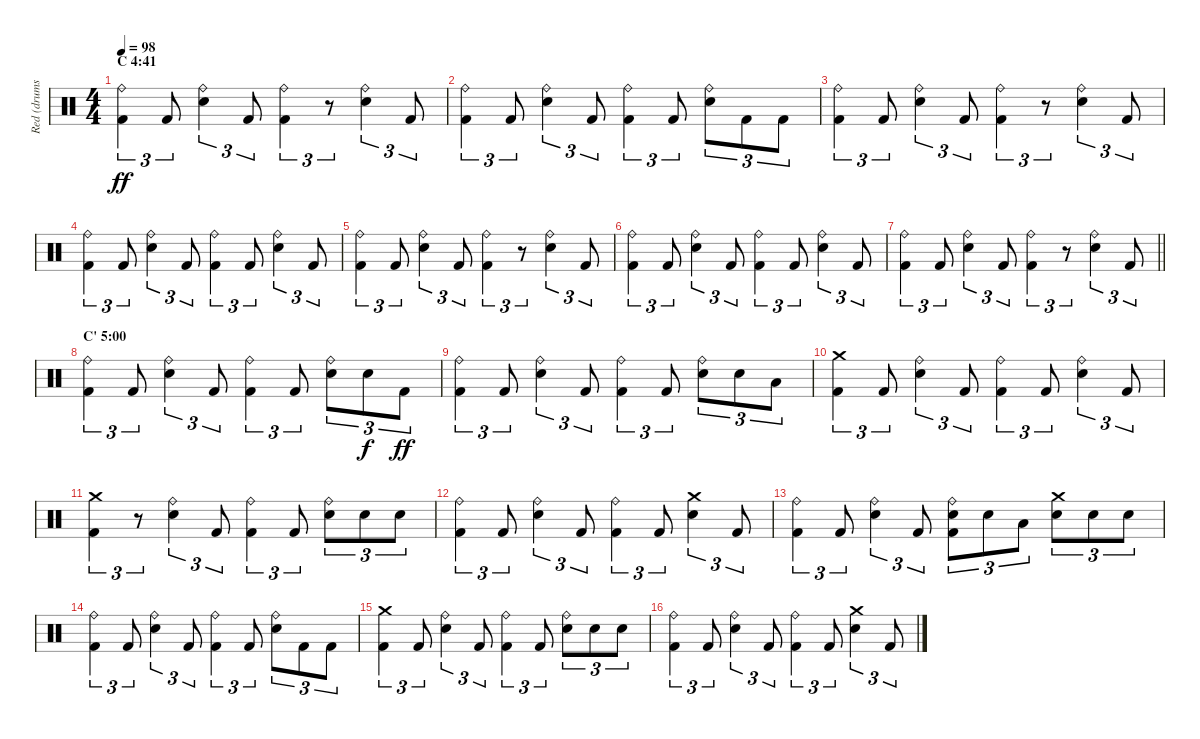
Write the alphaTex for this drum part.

\track ("Red (drums)" "Red (drums") {instrument percussion}
\staff {score}
\articulation defaults
\ts (4 4)
\section ("" "C 4:41")
\tempo 98
\clef neutral
\ks c
("Ride (bell)" "Kick (hit) 2").4{tu (3 2) dy ff} "Kick (hit) 2".8{tu (3 2)} ("Ride (bell)" "Electric Snare (hit)").4{tu (3 2)} "Kick (hit) 2".8{tu (3 2)} ("Ride (bell)" "Kick (hit) 2").4{tu (3 2)} r.8{tu (3 2)} ("Ride (bell)" "Electric Snare (hit)").4{tu (3 2)} "Kick (hit) 2".8{tu (3 2)} |
("Ride (bell)" "Kick (hit) 2").4{tu (3 2)} "Kick (hit) 2".8{tu (3 2)} ("Ride (bell)" "Electric Snare (hit)").4{tu (3 2)} "Kick (hit) 2".8{tu (3 2)} ("Ride (bell)" "Kick (hit) 2").4{tu (3 2)} "Kick (hit) 2".8{tu (3 2)} ("Ride (bell)" "Electric Snare (hit)").8{tu (3 2)} "Kick (hit) 2".8{tu (3 2)} "Kick (hit) 2".8{tu (3 2)} |
("Ride (bell)" "Kick (hit) 2").4{tu (3 2)} "Kick (hit) 2".8{tu (3 2)} ("Ride (bell)" "Electric Snare (hit)").4{tu (3 2)} "Kick (hit) 2".8{tu (3 2)} ("Ride (bell)" "Kick (hit) 2").4{tu (3 2)} r.8{tu (3 2)} ("Ride (bell)" "Electric Snare (hit)").4{tu (3 2)} "Kick (hit) 2".8{tu (3 2)} |
("Ride (bell)" "Kick (hit) 2").4{tu (3 2)} "Kick (hit) 2".8{tu (3 2)} ("Ride (bell)" "Electric Snare (hit)").4{tu (3 2)} "Kick (hit) 2".8{tu (3 2)} ("Ride (bell)" "Kick (hit) 2").4{tu (3 2)} "Kick (hit) 2".8{tu (3 2)} ("Ride (bell)" "Electric Snare (hit)").4{tu (3 2)} "Kick (hit) 2".8{tu (3 2)} |
("Ride (bell)" "Kick (hit) 2").4{tu (3 2)} "Kick (hit) 2".8{tu (3 2)} ("Ride (bell)" "Electric Snare (hit)").4{tu (3 2)} "Kick (hit) 2".8{tu (3 2)} ("Ride (bell)" "Kick (hit) 2").4{tu (3 2)} r.8{tu (3 2)} ("Ride (bell)" "Electric Snare (hit)").4{tu (3 2)} "Kick (hit) 2".8{tu (3 2)} |
("Ride (bell)" "Kick (hit) 2").4{tu (3 2)} "Kick (hit) 2".8{tu (3 2)} ("Ride (bell)" "Electric Snare (hit)").4{tu (3 2)} "Kick (hit) 2".8{tu (3 2)} ("Ride (bell)" "Kick (hit) 2").4{tu (3 2)} "Kick (hit) 2".8{tu (3 2)} ("Ride (bell)" "Electric Snare (hit)").4{tu (3 2)} "Kick (hit) 2".8{tu (3 2)} |
\barLineRight lightlight
("Ride (bell)" "Kick (hit) 2").4{tu (3 2)} "Kick (hit) 2".8{tu (3 2)} ("Ride (bell)" "Electric Snare (hit)").4{tu (3 2)} "Kick (hit) 2".8{tu (3 2)} ("Ride (bell)" "Kick (hit) 2").4{tu (3 2)} r.8{tu (3 2)} ("Ride (bell)" "Electric Snare (hit)").4{tu (3 2)} "Kick (hit) 2".8{tu (3 2)} |
\section ("" "C' 5:00")
("Ride (bell)" "Kick (hit) 2").4{tu (3 2)} "Kick (hit) 2".8{tu (3 2)} ("Ride (bell)" "Electric Snare (hit)").4{tu (3 2)} "Kick (hit) 2".8{tu (3 2)} ("Ride (bell)" "Kick (hit) 2").4{tu (3 2)} "Kick (hit) 2".8{tu (3 2)} ("Ride (bell)" "Electric Snare (hit)").8{tu (3 2)} "Electric Snare (hit)".8{tu (3 2) dy f} "Kick (hit) 2".8{tu (3 2) dy ff} |
("Ride (bell)" "Kick (hit) 2").4{tu (3 2)} "Kick (hit) 2".8{tu (3 2)} ("Ride (bell)" "Electric Snare (hit)").4{tu (3 2)} "Kick (hit) 2".8{tu (3 2)} ("Ride (bell)" "Kick (hit) 2").4{tu (3 2)} "Kick (hit) 2".8{tu (3 2)} ("Ride (bell)" "Electric Snare (hit)").8{tu (3 2)} "Electric Snare (hit)".8{tu (3 2)} "Low Floor Tom (hit)".8{tu (3 2)} |
("Crash medium (hit)" "Kick (hit) 2").4{tu (3 2)} "Kick (hit) 2".8{tu (3 2)} ("Ride (bell)" "Electric Snare (hit)").4{tu (3 2)} "Kick (hit) 2".8{tu (3 2)} ("Ride (bell)" "Kick (hit) 2").4{tu (3 2)} "Kick (hit) 2".8{tu (3 2)} ("Ride (bell)" "Electric Snare (hit)").4{tu (3 2)} "Kick (hit) 2".8{tu (3 2)} |
("Crash medium (hit)" "Kick (hit) 2").4{tu (3 2)} r.8{tu (3 2)} ("Ride (bell)" "Electric Snare (hit)").4{tu (3 2)} "Kick (hit) 2".8{tu (3 2)} ("Ride (bell)" "Kick (hit) 2").4{tu (3 2)} "Kick (hit) 2".8{tu (3 2)} ("Ride (bell)" "Electric Snare (hit)").8{tu (3 2)} "Electric Snare (hit)".8{tu (3 2)} "Electric Snare (hit)".8{tu (3 2)} |
("Ride (bell)" "Kick (hit) 2").4{tu (3 2)} "Kick (hit) 2".8{tu (3 2)} ("Ride (bell)" "Electric Snare (hit)").4{tu (3 2)} "Kick (hit) 2".8{tu (3 2)} ("Ride (bell)" "Kick (hit) 2").4{tu (3 2)} "Kick (hit) 2".8{tu (3 2)} ("Crash medium (hit)" "Electric Snare (hit)").4{tu (3 2)} "Kick (hit) 2".8{tu (3 2)} |
("Ride (bell)" "Kick (hit) 2").4{tu (3 2)} "Kick (hit) 2".8{tu (3 2)} ("Ride (bell)" "Electric Snare (hit)").4{tu (3 2)} "Kick (hit) 2".8{tu (3 2)} ("Ride (bell)" "Electric Snare (hit)" "Kick (hit) 2").8{tu (3 2)} "Electric Snare (hit)".8{tu (3 2)} "Low Tom (hit)".8{tu (3 2)} ("Crash medium (hit)" "Electric Snare (hit)").8{tu (3 2)} "Electric Snare (hit)".8{tu (3 2)} "Electric Snare (hit)".8{tu (3 2)} |
("Ride (bell)" "Kick (hit) 2").4{tu (3 2)} "Kick (hit) 2".8{tu (3 2)} ("Ride (bell)" "Electric Snare (hit)").4{tu (3 2)} "Kick (hit) 2".8{tu (3 2)} ("Ride (bell)" "Kick (hit) 2").4{tu (3 2)} "Kick (hit) 2".8{tu (3 2)} ("Ride (bell)" "Electric Snare (hit)").8{tu (3 2)} "Kick (hit) 2".8{tu (3 2)} "Kick (hit) 2".8{tu (3 2)} |
("Crash medium (hit)" "Kick (hit) 2").4{tu (3 2)} "Kick (hit) 2".8{tu (3 2)} ("Ride (bell)" "Electric Snare (hit)").4{tu (3 2)} "Kick (hit) 2".8{tu (3 2)} ("Ride (bell)" "Kick (hit) 2").4{tu (3 2)} "Kick (hit) 2".8{tu (3 2)} ("Ride (bell)" "Electric Snare (hit)").8{tu (3 2)} "Electric Snare (hit)".8{tu (3 2)} "Electric Snare (hit)".8{tu (3 2)} |
("Ride (bell)" "Kick (hit) 2").4{tu (3 2)} "Kick (hit) 2".8{tu (3 2)} ("Ride (bell)" "Electric Snare (hit)").4{tu (3 2)} "Kick (hit) 2".8{tu (3 2)} ("Ride (bell)" "Kick (hit) 2").4{tu (3 2)} "Kick (hit) 2".8{tu (3 2)} ("Crash medium (hit)" "Electric Snare (hit)").4{tu (3 2)} "Kick (hit) 2".8{tu (3 2)}
